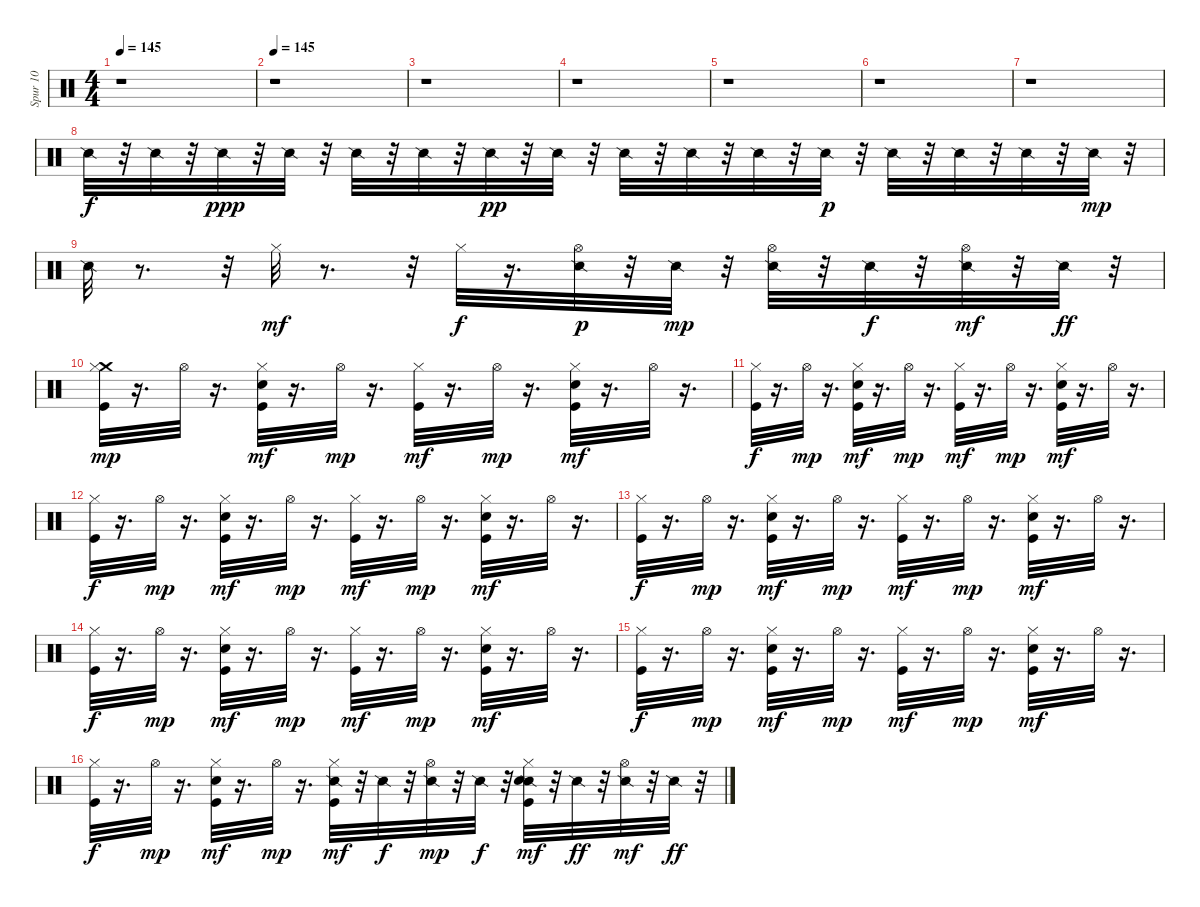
\track ("Spur 10" "Spur 10") {instrument percussion}
\staff {score}
\articulation defaults
\ts (4 4)
\tempo 145
\clef neutral
\ks c
r.1{dy f} |
\tempo 145
r.1 |
r.1 |
r.1 |
r.1 |
r.1 |
r.1 |
"Snare (side stick) 2".32 r.32 "Snare (side stick) 2".32 r.32 "Snare (side stick) 2".32{dy ppp} r.32 "Snare (side stick) 2".32 r.32 "Snare (side stick) 2".32 r.32 "Snare (side stick) 2".32 r.32 "Snare (side stick) 2".32{dy pp balance 11} r.32 "Snare (side stick) 2".32 r.32 "Snare (side stick) 2".32{balance 15} r.32 "Snare (side stick) 2".32 r.32 "Snare (side stick) 2".32{balance 11} r.32 "Snare (side stick) 2".32{dy p} r.32 "Snare (side stick) 2".32{balance 8} r.32 "Snare (side stick) 2".32 r.32 "Snare (side stick) 2".32{balance 4} r.32 "Snare (side stick) 2".32{dy mp} r.32 |
"Snare (side stick) 2".32{balance 0} r.8{d} r.32 "Hi-Hat (closed)".32{dy mf balance 8} r.8{d} r.32 "Hi-Hat (closed)".32{dy f} r.16{d} ("Snare (side stick) 2" "Hi-Hat (open)").32{dy p balance 10} r.32 "Snare (side stick) 2".32{dy mp} r.32 ("Snare (side stick) 2" "Hi-Hat (open)").32{balance 6} r.32 "Snare (side stick) 2".32{dy f} r.32 ("Snare (side stick) 2" "Hi-Hat (open)").32{dy mf balance 2} r.32 "Snare (side stick) 2".32{dy ff} r.32 |
("Crash medium (hit)" "Kick (hit)" "Hi-Hat (closed)").32{dy mp balance 8} r.16{d} "Hi-Hat (open)".32 r.16{d} ("Kick (hit)" "Snare (hit) 2" "Hi-Hat (closed)").32{dy mf} r.16{d} "Hi-Hat (open)".32{dy mp} r.16{d} ("Kick (hit)" "Hi-Hat (closed)").32{dy mf} r.16{d} "Hi-Hat (open)".32{dy mp} r.16{d} ("Kick (hit)" "Snare (hit) 2" "Hi-Hat (closed)").32{dy mf} r.16{d} "Hi-Hat (open)".32 r.16{d} |
("Kick (hit)" "Hi-Hat (closed)").32{dy f} r.16{d} "Hi-Hat (open)".32{dy mp} r.16{d} ("Kick (hit)" "Snare (hit) 2" "Hi-Hat (closed)").32{dy mf} r.16{d} "Hi-Hat (open)".32{dy mp} r.16{d} ("Kick (hit)" "Hi-Hat (closed)").32{dy mf} r.16{d} "Hi-Hat (open)".32{dy mp} r.16{d} ("Kick (hit)" "Snare (hit) 2" "Hi-Hat (closed)").32{dy mf} r.16{d} "Hi-Hat (open)".32 r.16{d} |
("Kick (hit)" "Hi-Hat (closed)").32{dy f} r.16{d} "Hi-Hat (open)".32{dy mp} r.16{d} ("Kick (hit)" "Snare (hit) 2" "Hi-Hat (closed)").32{dy mf} r.16{d} "Hi-Hat (open)".32{dy mp} r.16{d} ("Kick (hit)" "Hi-Hat (closed)").32{dy mf} r.16{d} "Hi-Hat (open)".32{dy mp} r.16{d} ("Kick (hit)" "Snare (hit) 2" "Hi-Hat (closed)").32{dy mf} r.16{d} "Hi-Hat (open)".32 r.16{d} |
("Kick (hit)" "Hi-Hat (closed)").32{dy f} r.16{d} "Hi-Hat (open)".32{dy mp} r.16{d} ("Kick (hit)" "Snare (hit) 2" "Hi-Hat (closed)").32{dy mf} r.16{d} "Hi-Hat (open)".32{dy mp} r.16{d} ("Kick (hit)" "Hi-Hat (closed)").32{dy mf} r.16{d} "Hi-Hat (open)".32{dy mp} r.16{d} ("Kick (hit)" "Snare (hit) 2" "Hi-Hat (closed)").32{dy mf} r.16{d} "Hi-Hat (open)".32 r.16{d} |
("Kick (hit)" "Hi-Hat (closed)").32{dy f} r.16{d} "Hi-Hat (open)".32{dy mp} r.16{d} ("Kick (hit)" "Snare (hit) 2" "Hi-Hat (closed)").32{dy mf} r.16{d} "Hi-Hat (open)".32{dy mp} r.16{d} ("Kick (hit)" "Hi-Hat (closed)").32{dy mf} r.16{d} "Hi-Hat (open)".32{dy mp} r.16{d} ("Kick (hit)" "Snare (hit) 2" "Hi-Hat (closed)").32{dy mf} r.16{d} "Hi-Hat (open)".32 r.16{d} |
("Kick (hit)" "Hi-Hat (closed)").32{dy f} r.16{d} "Hi-Hat (open)".32{dy mp} r.16{d} ("Kick (hit)" "Snare (hit) 2" "Hi-Hat (closed)").32{dy mf} r.16{d} "Hi-Hat (open)".32{dy mp} r.16{d} ("Kick (hit)" "Hi-Hat (closed)").32{dy mf} r.16{d} "Hi-Hat (open)".32{dy mp} r.16{d} ("Kick (hit)" "Snare (hit) 2" "Hi-Hat (closed)").32{dy mf} r.16{d} "Hi-Hat (open)".32 r.16{d} |
("Kick (hit)" "Hi-Hat (closed)").32{dy f} r.16{d} "Hi-Hat (open)".32{dy mp} r.16{d} ("Kick (hit)" "Snare (hit) 2" "Hi-Hat (closed)").32{dy mf} r.16{d} "Hi-Hat (open)".32{dy mp} r.16{d} ("Snare (side stick) 2" "Kick (hit)" "Hi-Hat (closed)").32{dy mf} r.32 "Snare (side stick) 2".32{dy f} r.32 ("Snare (side stick) 2" "Hi-Hat (open)").32{dy mp balance 11} r.32 "Snare (side stick) 2".32{dy f} r.32 ("Snare (side stick) 2" "Kick (hit)" "Snare (hit) 2" "Hi-Hat (closed)").32{dy mf balance 8} r.32 "Snare (side stick) 2".32{dy ff} r.32 ("Snare (side stick) 2" "Hi-Hat (open)").32{dy mf balance 4} r.32 "Snare (side stick) 2".32{dy ff} r.32
